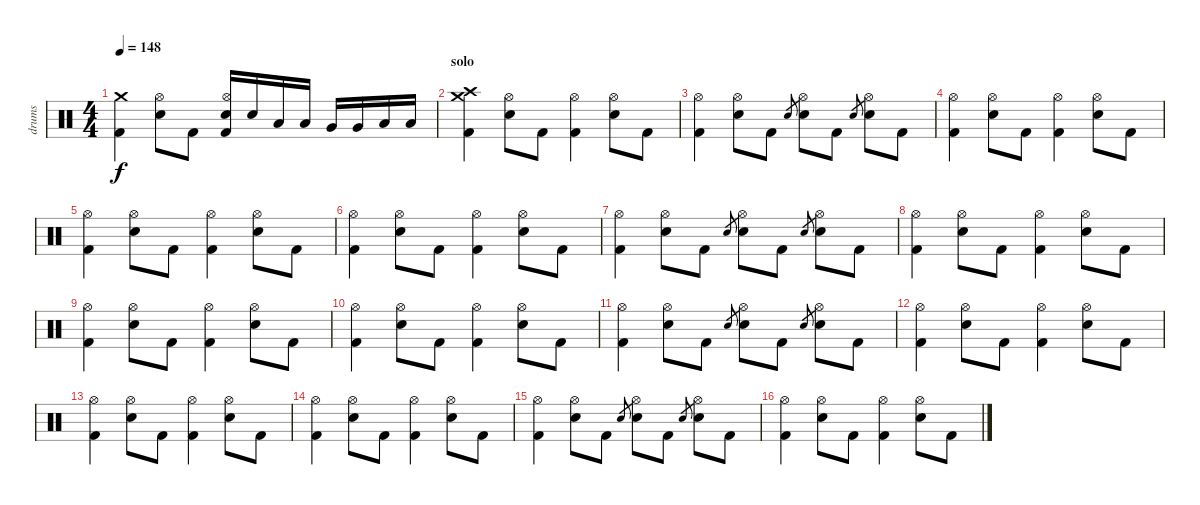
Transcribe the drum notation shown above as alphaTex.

\track ("drums" "drums") {instrument percussion}
\staff {score}
\articulation defaults
\ts (4 4)
\tempo 148
\clef neutral
\ks c
("Crash medium (hit)" "Kick (hit) 2").4{dy f} ("Hi-Hat (open)" "Electric Snare (hit)").8 "Kick (hit) 2".8 ("Hi-Hat (open)" "Electric Snare (hit)" "Kick (hit) 2").16 "Electric Snare (hit)".16 "Low Tom (hit)".16 "Low Tom (hit)".16 "Very Low Tom (hit)".16 "Very Low Tom (hit)".16 "Low Floor Tom (hit)".16 "Low Floor Tom (hit)".16 |
\section ("" "solo")
("Crash high (hit)" "Crash medium (hit)" "Kick (hit) 2").4 ("Hi-Hat (open)" "Electric Snare (hit)").8 "Kick (hit) 2".8 ("Hi-Hat (open)" "Kick (hit) 2").4 ("Hi-Hat (open)" "Electric Snare (hit)").8 "Kick (hit) 2".8 |
("Hi-Hat (open)" "Kick (hit) 2").4 ("Hi-Hat (open)" "Electric Snare (hit)").8 "Kick (hit) 2".8 "Electric Snare (hit)".8{gr} ("Hi-Hat (open)" "Electric Snare (hit)").8 "Kick (hit) 2".8 "Electric Snare (hit)".8{gr} ("Hi-Hat (open)" "Electric Snare (hit)").8 "Kick (hit) 2".8 |
("Hi-Hat (open)" "Kick (hit) 2").4 ("Hi-Hat (open)" "Electric Snare (hit)").8 "Kick (hit) 2".8 ("Hi-Hat (open)" "Kick (hit) 2").4 ("Hi-Hat (open)" "Electric Snare (hit)").8 "Kick (hit) 2".8 |
("Hi-Hat (open)" "Kick (hit) 2").4 ("Hi-Hat (open)" "Electric Snare (hit)").8 "Kick (hit) 2".8 ("Hi-Hat (open)" "Kick (hit) 2").4 ("Hi-Hat (open)" "Electric Snare (hit)").8 "Kick (hit) 2".8 |
("Hi-Hat (open)" "Kick (hit) 2").4 ("Hi-Hat (open)" "Electric Snare (hit)").8 "Kick (hit) 2".8 ("Hi-Hat (open)" "Kick (hit) 2").4 ("Hi-Hat (open)" "Electric Snare (hit)").8 "Kick (hit) 2".8 |
("Hi-Hat (open)" "Kick (hit) 2").4 ("Hi-Hat (open)" "Electric Snare (hit)").8 "Kick (hit) 2".8 "Electric Snare (hit)".8{gr} ("Hi-Hat (open)" "Electric Snare (hit)").8 "Kick (hit) 2".8 "Electric Snare (hit)".8{gr} ("Hi-Hat (open)" "Electric Snare (hit)").8 "Kick (hit) 2".8 |
("Hi-Hat (open)" "Kick (hit) 2").4 ("Hi-Hat (open)" "Electric Snare (hit)").8 "Kick (hit) 2".8 ("Hi-Hat (open)" "Kick (hit) 2").4 ("Hi-Hat (open)" "Electric Snare (hit)").8 "Kick (hit) 2".8 |
("Hi-Hat (open)" "Kick (hit) 2").4 ("Hi-Hat (open)" "Electric Snare (hit)").8 "Kick (hit) 2".8 ("Hi-Hat (open)" "Kick (hit) 2").4 ("Hi-Hat (open)" "Electric Snare (hit)").8 "Kick (hit) 2".8 |
("Hi-Hat (open)" "Kick (hit) 2").4 ("Hi-Hat (open)" "Electric Snare (hit)").8 "Kick (hit) 2".8 ("Hi-Hat (open)" "Kick (hit) 2").4 ("Hi-Hat (open)" "Electric Snare (hit)").8 "Kick (hit) 2".8 |
("Hi-Hat (open)" "Kick (hit) 2").4 ("Hi-Hat (open)" "Electric Snare (hit)").8 "Kick (hit) 2".8 "Electric Snare (hit)".8{gr} ("Hi-Hat (open)" "Electric Snare (hit)").8 "Kick (hit) 2".8 "Electric Snare (hit)".8{gr} ("Hi-Hat (open)" "Electric Snare (hit)").8 "Kick (hit) 2".8 |
("Hi-Hat (open)" "Kick (hit) 2").4 ("Hi-Hat (open)" "Electric Snare (hit)").8 "Kick (hit) 2".8 ("Hi-Hat (open)" "Kick (hit) 2").4 ("Hi-Hat (open)" "Electric Snare (hit)").8 "Kick (hit) 2".8 |
("Hi-Hat (open)" "Kick (hit) 2").4 ("Hi-Hat (open)" "Electric Snare (hit)").8 "Kick (hit) 2".8 ("Hi-Hat (open)" "Kick (hit) 2").4 ("Hi-Hat (open)" "Electric Snare (hit)").8 "Kick (hit) 2".8 |
("Hi-Hat (open)" "Kick (hit) 2").4 ("Hi-Hat (open)" "Electric Snare (hit)").8 "Kick (hit) 2".8 ("Hi-Hat (open)" "Kick (hit) 2").4 ("Hi-Hat (open)" "Electric Snare (hit)").8 "Kick (hit) 2".8 |
("Hi-Hat (open)" "Kick (hit) 2").4 ("Hi-Hat (open)" "Electric Snare (hit)").8 "Kick (hit) 2".8 "Electric Snare (hit)".8{gr} ("Hi-Hat (open)" "Electric Snare (hit)").8 "Kick (hit) 2".8 "Electric Snare (hit)".8{gr} ("Hi-Hat (open)" "Electric Snare (hit)").8 "Kick (hit) 2".8 |
("Hi-Hat (open)" "Kick (hit) 2").4 ("Hi-Hat (open)" "Electric Snare (hit)").8 "Kick (hit) 2".8 ("Hi-Hat (open)" "Kick (hit) 2").4 ("Hi-Hat (open)" "Electric Snare (hit)").8 "Kick (hit) 2".8
